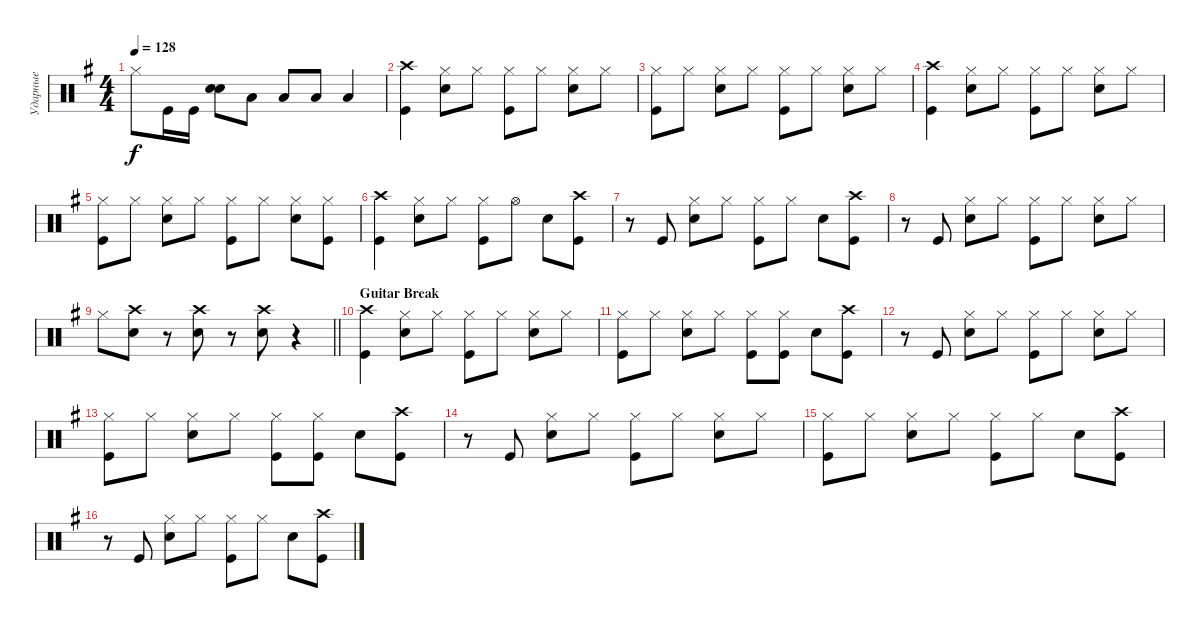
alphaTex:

\track ("Ударные" "Ударные") {instrument percussion}
\staff {score}
\articulation defaults
\ts (4 4)
\tempo 128
\clef neutral
\ks eminor "Hi-Hat (closed)".8{dy f} "Kick (hit)".16 "Kick (hit)".16
("Snare (hit) 2" "Snare (hit) 2").8{bd 240} "Low Tom (hit)".8 "Low Tom (hit)".8 "Low Tom (hit)".8 "Low Tom (hit)".4 |
("Crash high (hit)" "Kick (hit)").4 ("Hi-Hat (closed)" "Snare (hit) 2").8 "Hi-Hat (closed)".8 ("Hi-Hat (closed)" "Kick (hit)").8 "Hi-Hat (closed)".8 ("Hi-Hat (closed)" "Snare (hit) 2").8 "Hi-Hat (closed)".8 |
("Hi-Hat (closed)" "Kick (hit)").8 "Hi-Hat (closed)".8 ("Hi-Hat (closed)" "Snare (hit) 2").8 "Hi-Hat (closed)".8 ("Hi-Hat (closed)" "Kick (hit)").8 "Hi-Hat (closed)".8 ("Hi-Hat (closed)" "Snare (hit) 2").8 "Hi-Hat (closed)".8 |
("Crash high (hit)" "Kick (hit)").4 ("Hi-Hat (closed)" "Snare (hit) 2").8 "Hi-Hat (closed)".8 ("Hi-Hat (closed)" "Kick (hit)").8 "Hi-Hat (closed)".8 ("Hi-Hat (closed)" "Snare (hit) 2").8 "Hi-Hat (closed)".8 |
("Hi-Hat (closed)" "Kick (hit)").8 "Hi-Hat (closed)".8 ("Hi-Hat (closed)" "Snare (hit) 2").8 "Hi-Hat (closed)".8 ("Hi-Hat (closed)" "Kick (hit)").8 "Hi-Hat (closed)".8 ("Hi-Hat (closed)" "Snare (hit) 2").8 ("Hi-Hat (closed)" "Kick (hit)").8 |
("Crash high (hit)" "Kick (hit)").4 ("Hi-Hat (closed)" "Snare (hit) 2").8 "Hi-Hat (closed)".8 ("Hi-Hat (closed)" "Kick (hit)").8 "Hi-Hat (open)".8 "Snare (hit) 2".8 ("Kick (hit)" "Crash high (hit)").8 |
r.8 "Kick (hit)".8 ("Hi-Hat (closed)" "Snare (hit) 2").8 "Hi-Hat (closed)".8 ("Hi-Hat (closed)" "Kick (hit)").8 "Hi-Hat (closed)".8 "Snare (hit) 2".8 ("Kick (hit)" "Crash high (hit)").8 |
r.8 "Kick (hit)".8 ("Hi-Hat (closed)" "Snare (hit) 2").8 "Hi-Hat (closed)".8 ("Hi-Hat (closed)" "Kick (hit)").8 "Hi-Hat (closed)".8 ("Hi-Hat (closed)" "Snare (hit) 2").8 "Hi-Hat (closed)".8 |
\barLineRight lightlight "Hi-Hat (closed)".8
("Snare (hit) 2" "Crash high (hit)").8 r.8 ("Snare (hit) 2" "Crash high (hit)").8 r.8 ("Snare (hit) 2" "Crash high (hit)").8 r.4 |
\section ("" "Guitar Break")
("Crash high (hit)" "Kick (hit)").4 ("Hi-Hat (closed)" "Snare (hit) 2").8 "Hi-Hat (closed)".8 ("Hi-Hat (closed)" "Kick (hit)").8 "Hi-Hat (closed)".8 ("Hi-Hat (closed)" "Snare (hit) 2").8 "Hi-Hat (closed)".8 |
("Hi-Hat (closed)" "Kick (hit)").8 "Hi-Hat (closed)".8 ("Hi-Hat (closed)" "Snare (hit) 2").8 "Hi-Hat (closed)".8 ("Kick (hit)" "Hi-Hat (closed)").8 ("Hi-Hat (closed)" "Kick (hit)").8 "Snare (hit) 2".8 ("Kick (hit)" "Crash high (hit)").8 |
r.8 "Kick (hit)".8 ("Hi-Hat (closed)" "Snare (hit) 2").8 "Hi-Hat (closed)".8 ("Hi-Hat (closed)" "Kick (hit)").8 "Hi-Hat (closed)".8 ("Hi-Hat (closed)" "Snare (hit) 2").8 "Hi-Hat (closed)".8 |
("Hi-Hat (closed)" "Kick (hit)").8 "Hi-Hat (closed)".8 ("Hi-Hat (closed)" "Snare (hit) 2").8 "Hi-Hat (closed)".8 ("Kick (hit)" "Hi-Hat (closed)").8 ("Hi-Hat (closed)" "Kick (hit)").8 "Snare (hit) 2".8 ("Kick (hit)" "Crash high (hit)").8 |
r.8 "Kick (hit)".8 ("Hi-Hat (closed)" "Snare (hit) 2").8 "Hi-Hat (closed)".8 ("Hi-Hat (closed)" "Kick (hit)").8 "Hi-Hat (closed)".8 ("Hi-Hat (closed)" "Snare (hit) 2").8 "Hi-Hat (closed)".8 |
("Hi-Hat (closed)" "Kick (hit)").8 "Hi-Hat (closed)".8 ("Hi-Hat (closed)" "Snare (hit) 2").8 "Hi-Hat (closed)".8 ("Kick (hit)" "Hi-Hat (closed)").8 "Hi-Hat (closed)".8 "Snare (hit) 2".8 ("Kick (hit)" "Crash high (hit)").8 |
r.8 "Kick (hit)".8 ("Hi-Hat (closed)" "Snare (hit) 2").8 "Hi-Hat (closed)".8 ("Hi-Hat (closed)" "Kick (hit)").8 "Hi-Hat (closed)".8 "Snare (hit) 2".8 ("Kick (hit)" "Crash high (hit)").8
